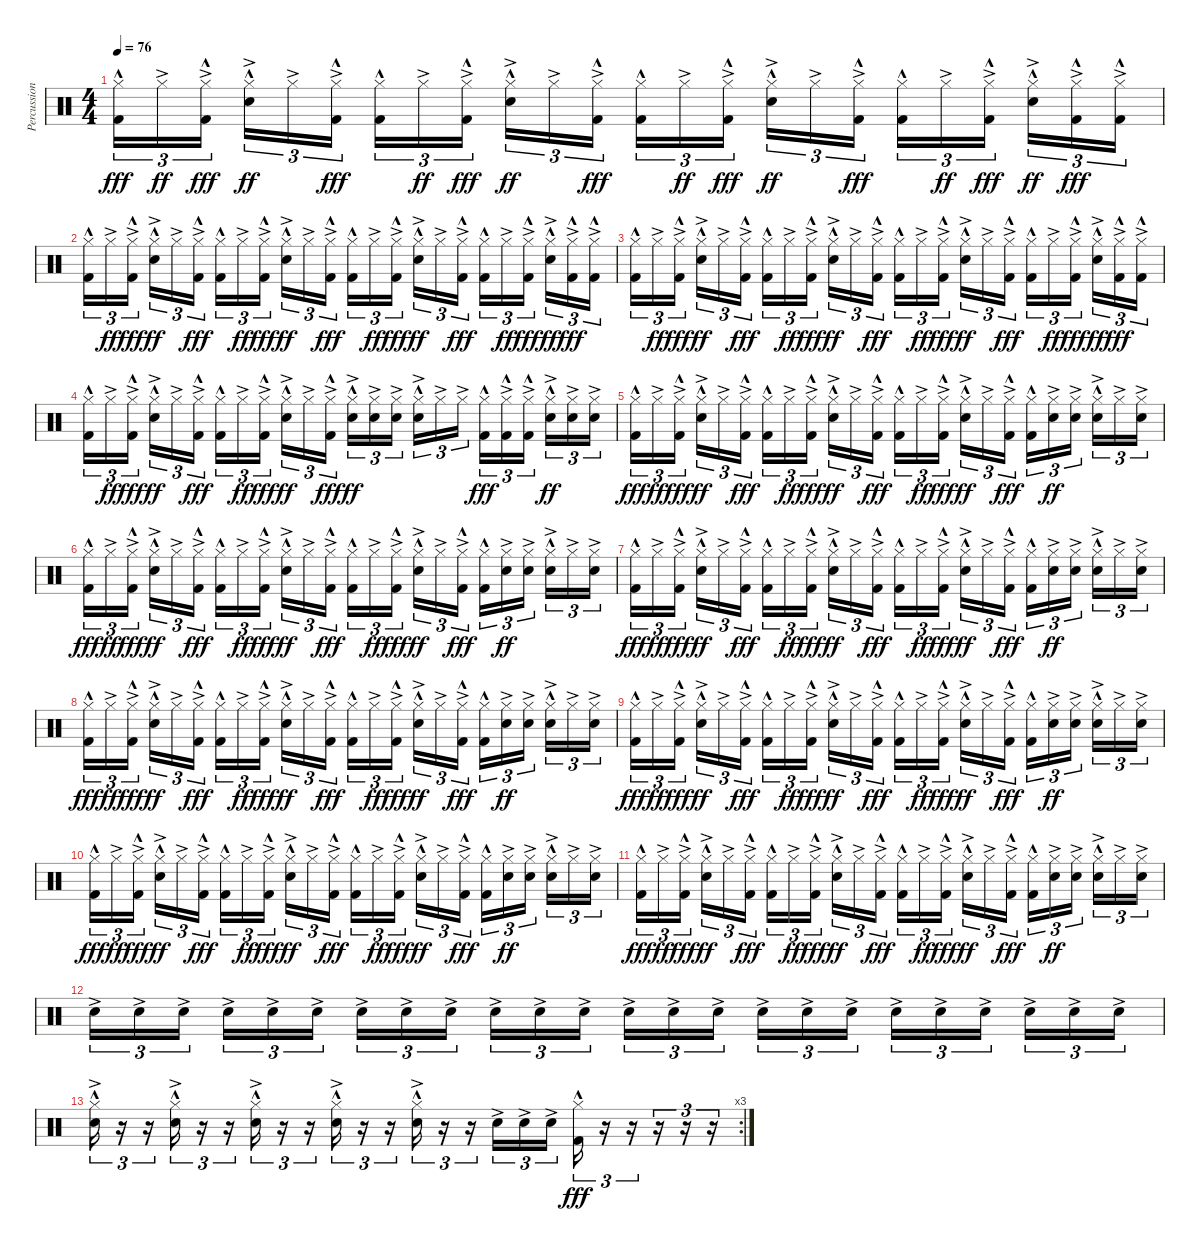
\track ("Percussion" "Percussion") {instrument percussion}
\staff {score}
\articulation defaults
\ts (4 4)
\tempo 76
\clef neutral
\ks c
("Hi-Hat (closed)"{hac} "Kick (hit) 2"{hac}).16{tu (3 2) dy fff} "Hi-Hat (closed)"{ac}.16{tu (3 2) dy ff} ("Hi-Hat (closed)"{ac} "Kick (hit) 2"{hac}).16{tu (3 2) dy fff beam splitsecondary} ("Hi-Hat (closed)"{hac} "Snare (hit) 2"{ac}).16{tu (3 2) dy ff} "Hi-Hat (closed)"{ac}.16{tu (3 2)} ("Hi-Hat (closed)"{ac} "Kick (hit) 2"{hac}).16{tu (3 2) dy fff} ("Hi-Hat (closed)"{hac} "Kick (hit) 2"{hac}).16{tu (3 2)} "Hi-Hat (closed)"{ac}.16{tu (3 2) dy ff} ("Hi-Hat (closed)"{ac} "Kick (hit) 2"{hac}).16{tu (3 2) dy fff beam splitsecondary} ("Hi-Hat (closed)"{hac} "Snare (hit) 2"{ac}).16{tu (3 2) dy ff} "Hi-Hat (closed)"{ac}.16{tu (3 2)} ("Hi-Hat (closed)"{ac} "Kick (hit) 2"{hac}).16{tu (3 2) dy fff} ("Hi-Hat (closed)"{hac} "Kick (hit) 2"{hac}).16{tu (3 2)} "Hi-Hat (closed)"{ac}.16{tu (3 2) dy ff} ("Hi-Hat (closed)"{ac} "Kick (hit) 2"{hac}).16{tu (3 2) dy fff beam splitsecondary} ("Hi-Hat (closed)"{hac} "Snare (hit) 2"{ac}).16{tu (3 2) dy ff} "Hi-Hat (closed)"{ac}.16{tu (3 2)} ("Hi-Hat (closed)"{ac} "Kick (hit) 2"{hac}).16{tu (3 2) dy fff} ("Hi-Hat (closed)"{hac} "Kick (hit) 2"{hac}).16{tu (3 2)} "Hi-Hat (closed)"{ac}.16{tu (3 2) dy ff} ("Hi-Hat (closed)"{ac} "Kick (hit) 2"{hac}).16{tu (3 2) dy fff beam splitsecondary} ("Hi-Hat (closed)"{hac} "Snare (hit) 2"{ac}).16{tu (3 2) dy ff} ("Hi-Hat (closed)"{ac} "Kick (hit) 2"{hac}).16{tu (3 2) dy fff} ("Hi-Hat (closed)"{ac} "Kick (hit) 2"{hac}).16{tu (3 2)} |
("Hi-Hat (closed)"{hac} "Kick (hit) 2"{hac}).16{tu (3 2)} "Hi-Hat (closed)"{ac}.16{tu (3 2) dy ff} ("Hi-Hat (closed)"{ac} "Kick (hit) 2"{hac}).16{tu (3 2) dy fff beam splitsecondary} ("Hi-Hat (closed)"{hac} "Snare (hit) 2"{ac}).16{tu (3 2) dy ff} "Hi-Hat (closed)"{ac}.16{tu (3 2)} ("Hi-Hat (closed)"{ac} "Kick (hit) 2"{hac}).16{tu (3 2) dy fff} ("Hi-Hat (closed)"{hac} "Kick (hit) 2"{hac}).16{tu (3 2)} "Hi-Hat (closed)"{ac}.16{tu (3 2) dy ff} ("Hi-Hat (closed)"{ac} "Kick (hit) 2"{hac}).16{tu (3 2) dy fff beam splitsecondary} ("Hi-Hat (closed)"{hac} "Snare (hit) 2"{ac}).16{tu (3 2) dy ff} "Hi-Hat (closed)"{ac}.16{tu (3 2)} ("Hi-Hat (closed)"{ac} "Kick (hit) 2"{hac}).16{tu (3 2) dy fff} ("Hi-Hat (closed)"{hac} "Kick (hit) 2"{hac}).16{tu (3 2)} "Hi-Hat (closed)"{ac}.16{tu (3 2) dy ff} ("Hi-Hat (closed)"{ac} "Kick (hit) 2"{hac}).16{tu (3 2) dy fff beam splitsecondary} ("Hi-Hat (closed)"{hac} "Snare (hit) 2"{ac}).16{tu (3 2) dy ff} "Hi-Hat (closed)"{ac}.16{tu (3 2)} ("Hi-Hat (closed)"{ac} "Kick (hit) 2"{hac}).16{tu (3 2) dy fff} ("Hi-Hat (closed)"{hac} "Kick (hit) 2"{hac}).16{tu (3 2)} "Hi-Hat (closed)"{ac}.16{tu (3 2) dy ff} ("Hi-Hat (closed)"{ac} "Kick (hit) 2"{hac}).16{tu (3 2) dy fff beam splitsecondary} ("Hi-Hat (closed)"{hac} "Snare (hit) 2"{ac}).16{tu (3 2) dy ff} ("Hi-Hat (closed)"{ac} "Kick (hit) 2"{hac}).16{tu (3 2) dy fff} ("Hi-Hat (closed)"{ac} "Kick (hit) 2"{hac}).16{tu (3 2)} |
("Hi-Hat (closed)"{hac} "Kick (hit) 2"{hac}).16{tu (3 2)} "Hi-Hat (closed)"{ac}.16{tu (3 2) dy ff} ("Hi-Hat (closed)"{ac} "Kick (hit) 2"{hac}).16{tu (3 2) dy fff beam splitsecondary} ("Hi-Hat (closed)"{hac} "Snare (hit) 2"{ac}).16{tu (3 2) dy ff} "Hi-Hat (closed)"{ac}.16{tu (3 2)} ("Hi-Hat (closed)"{ac} "Kick (hit) 2"{hac}).16{tu (3 2) dy fff} ("Hi-Hat (closed)"{hac} "Kick (hit) 2"{hac}).16{tu (3 2)} "Hi-Hat (closed)"{ac}.16{tu (3 2) dy ff} ("Hi-Hat (closed)"{ac} "Kick (hit) 2"{hac}).16{tu (3 2) dy fff beam splitsecondary} ("Hi-Hat (closed)"{hac} "Snare (hit) 2"{ac}).16{tu (3 2) dy ff} "Hi-Hat (closed)"{ac}.16{tu (3 2)} ("Hi-Hat (closed)"{ac} "Kick (hit) 2"{hac}).16{tu (3 2) dy fff} ("Hi-Hat (closed)"{hac} "Kick (hit) 2"{hac}).16{tu (3 2)} "Hi-Hat (closed)"{ac}.16{tu (3 2) dy ff} ("Hi-Hat (closed)"{ac} "Kick (hit) 2"{hac}).16{tu (3 2) dy fff beam splitsecondary} ("Hi-Hat (closed)"{hac} "Snare (hit) 2"{ac}).16{tu (3 2) dy ff} "Hi-Hat (closed)"{ac}.16{tu (3 2)} ("Hi-Hat (closed)"{ac} "Kick (hit) 2"{hac}).16{tu (3 2) dy fff} ("Hi-Hat (closed)"{hac} "Kick (hit) 2"{hac}).16{tu (3 2)} "Hi-Hat (closed)"{ac}.16{tu (3 2) dy ff} ("Hi-Hat (closed)"{ac} "Kick (hit) 2"{hac}).16{tu (3 2) dy fff beam splitsecondary} ("Hi-Hat (closed)"{hac} "Snare (hit) 2"{ac}).16{tu (3 2) dy ff} ("Hi-Hat (closed)"{ac} "Kick (hit) 2"{hac}).16{tu (3 2) dy fff} ("Hi-Hat (closed)"{ac} "Kick (hit) 2"{hac}).16{tu (3 2)} |
("Hi-Hat (closed)"{hac} "Kick (hit) 2"{hac}).16{tu (3 2)} "Hi-Hat (closed)"{ac}.16{tu (3 2) dy ff} ("Hi-Hat (closed)"{ac} "Kick (hit) 2"{hac}).16{tu (3 2) dy fff beam splitsecondary} ("Hi-Hat (closed)"{hac} "Snare (hit) 2"{ac}).16{tu (3 2) dy ff} "Hi-Hat (closed)"{ac}.16{tu (3 2)} ("Hi-Hat (closed)"{ac} "Kick (hit) 2"{hac}).16{tu (3 2) dy fff} ("Hi-Hat (closed)"{hac} "Kick (hit) 2"{hac}).16{tu (3 2)} "Hi-Hat (closed)"{ac}.16{tu (3 2) dy ff} ("Hi-Hat (closed)"{ac} "Kick (hit) 2"{hac}).16{tu (3 2) dy fff beam splitsecondary} ("Hi-Hat (closed)"{hac} "Snare (hit) 2"{ac}).16{tu (3 2) dy ff} "Hi-Hat (closed)"{ac}.16{tu (3 2)} ("Hi-Hat (closed)"{ac} "Kick (hit) 2"{hac}).16{tu (3 2) dy fff} ("Hi-Hat (closed)"{hac} "Snare (hit) 2"{ac}).16{tu (3 2) dy ff} ("Hi-Hat (closed)"{ac} "Snare (hit) 2"{ac}).16{tu (3 2)} ("Hi-Hat (closed)"{ac} "Snare (hit) 2"{ac}).16{tu (3 2) beam splitsecondary} ("Hi-Hat (closed)"{hac} "Snare (hit) 2"{ac}).16{tu (3 2)} "Hi-Hat (closed)"{ac}.16{tu (3 2)} "Hi-Hat (closed)"{ac}.16{tu (3 2)} ("Hi-Hat (closed)"{hac} "Kick (hit) 2"{hac}).16{tu (3 2) dy fff} ("Hi-Hat (closed)"{ac} "Kick (hit) 2"{hac}).16{tu (3 2)} ("Hi-Hat (closed)"{ac} "Kick (hit) 2"{hac}).16{tu (3 2) beam splitsecondary} ("Hi-Hat (closed)"{hac} "Snare (hit) 2"{ac}).16{tu (3 2) dy ff} ("Hi-Hat (closed)"{ac} "Snare (hit) 2"{ac}).16{tu (3 2)} ("Hi-Hat (closed)"{ac} "Snare (hit) 2"{ac}).16{tu (3 2)} |
("Hi-Hat (closed)"{hac} "Kick (hit) 2"{hac}).16{tu (3 2) dy fff} "Hi-Hat (closed)"{ac}.16{tu (3 2) dy ff} ("Hi-Hat (closed)"{ac} "Kick (hit) 2"{hac}).16{tu (3 2) dy fff beam splitsecondary} ("Hi-Hat (closed)"{hac} "Snare (hit) 2"{ac}).16{tu (3 2) dy ff} "Hi-Hat (closed)"{ac}.16{tu (3 2)} ("Hi-Hat (closed)"{ac} "Kick (hit) 2"{hac}).16{tu (3 2) dy fff} ("Hi-Hat (closed)"{hac} "Kick (hit) 2"{hac}).16{tu (3 2)} "Hi-Hat (closed)"{ac}.16{tu (3 2) dy ff} ("Hi-Hat (closed)"{ac} "Kick (hit) 2"{hac}).16{tu (3 2) dy fff beam splitsecondary} ("Hi-Hat (closed)"{hac} "Snare (hit) 2"{ac}).16{tu (3 2) dy ff} "Hi-Hat (closed)"{ac}.16{tu (3 2)} ("Hi-Hat (closed)"{ac} "Kick (hit) 2"{hac}).16{tu (3 2) dy fff} ("Hi-Hat (closed)"{hac} "Kick (hit) 2"{hac}).16{tu (3 2)} "Hi-Hat (closed)"{ac}.16{tu (3 2) dy ff} ("Hi-Hat (closed)"{ac} "Kick (hit) 2"{hac}).16{tu (3 2) dy fff beam splitsecondary} ("Hi-Hat (closed)"{hac} "Snare (hit) 2"{ac}).16{tu (3 2) dy ff} "Hi-Hat (closed)"{ac}.16{tu (3 2)} ("Hi-Hat (closed)"{ac} "Kick (hit) 2"{hac}).16{tu (3 2) dy fff} ("Hi-Hat (closed)"{hac} "Kick (hit) 2"{hac}).16{tu (3 2)} ("Hi-Hat (closed)"{ac} "Snare (hit) 2"{ac}).16{tu (3 2) dy ff} ("Hi-Hat (closed)"{ac} "Snare (hit) 2"{ac}).16{tu (3 2) beam splitsecondary} ("Hi-Hat (closed)"{hac} "Snare (hit) 2"{ac}).16{tu (3 2)} "Hi-Hat (closed)"{ac}.16{tu (3 2)} ("Hi-Hat (closed)"{ac} "Snare (hit) 2"{ac}).16{tu (3 2)} |
("Hi-Hat (closed)"{hac} "Kick (hit) 2"{hac}).16{tu (3 2) dy fff} "Hi-Hat (closed)"{ac}.16{tu (3 2) dy ff} ("Hi-Hat (closed)"{ac} "Kick (hit) 2"{hac}).16{tu (3 2) dy fff beam splitsecondary} ("Hi-Hat (closed)"{hac} "Snare (hit) 2"{ac}).16{tu (3 2) dy ff} "Hi-Hat (closed)"{ac}.16{tu (3 2)} ("Hi-Hat (closed)"{ac} "Kick (hit) 2"{hac}).16{tu (3 2) dy fff} ("Hi-Hat (closed)"{hac} "Kick (hit) 2"{hac}).16{tu (3 2)} "Hi-Hat (closed)"{ac}.16{tu (3 2) dy ff} ("Hi-Hat (closed)"{ac} "Kick (hit) 2"{hac}).16{tu (3 2) dy fff beam splitsecondary} ("Hi-Hat (closed)"{hac} "Snare (hit) 2"{ac}).16{tu (3 2) dy ff} "Hi-Hat (closed)"{ac}.16{tu (3 2)} ("Hi-Hat (closed)"{ac} "Kick (hit) 2"{hac}).16{tu (3 2) dy fff} ("Hi-Hat (closed)"{hac} "Kick (hit) 2"{hac}).16{tu (3 2)} "Hi-Hat (closed)"{ac}.16{tu (3 2) dy ff} ("Hi-Hat (closed)"{ac} "Kick (hit) 2"{hac}).16{tu (3 2) dy fff beam splitsecondary} ("Hi-Hat (closed)"{hac} "Snare (hit) 2"{ac}).16{tu (3 2) dy ff} "Hi-Hat (closed)"{ac}.16{tu (3 2)} ("Hi-Hat (closed)"{ac} "Kick (hit) 2"{hac}).16{tu (3 2) dy fff} ("Hi-Hat (closed)"{hac} "Kick (hit) 2"{hac}).16{tu (3 2)} ("Hi-Hat (closed)"{ac} "Snare (hit) 2"{ac}).16{tu (3 2) dy ff} ("Hi-Hat (closed)"{ac} "Snare (hit) 2"{ac}).16{tu (3 2) beam splitsecondary} ("Hi-Hat (closed)"{hac} "Snare (hit) 2"{ac}).16{tu (3 2)} "Hi-Hat (closed)"{ac}.16{tu (3 2)} ("Hi-Hat (closed)"{ac} "Snare (hit) 2"{ac}).16{tu (3 2)} |
("Hi-Hat (closed)"{hac} "Kick (hit) 2"{hac}).16{tu (3 2) dy fff} "Hi-Hat (closed)"{ac}.16{tu (3 2) dy ff} ("Hi-Hat (closed)"{ac} "Kick (hit) 2"{hac}).16{tu (3 2) dy fff beam splitsecondary} ("Hi-Hat (closed)"{hac} "Snare (hit) 2"{ac}).16{tu (3 2) dy ff} "Hi-Hat (closed)"{ac}.16{tu (3 2)} ("Hi-Hat (closed)"{ac} "Kick (hit) 2"{hac}).16{tu (3 2) dy fff} ("Hi-Hat (closed)"{hac} "Kick (hit) 2"{hac}).16{tu (3 2)} "Hi-Hat (closed)"{ac}.16{tu (3 2) dy ff} ("Hi-Hat (closed)"{ac} "Kick (hit) 2"{hac}).16{tu (3 2) dy fff beam splitsecondary} ("Hi-Hat (closed)"{hac} "Snare (hit) 2"{ac}).16{tu (3 2) dy ff} "Hi-Hat (closed)"{ac}.16{tu (3 2)} ("Hi-Hat (closed)"{ac} "Kick (hit) 2"{hac}).16{tu (3 2) dy fff} ("Hi-Hat (closed)"{hac} "Kick (hit) 2"{hac}).16{tu (3 2)} "Hi-Hat (closed)"{ac}.16{tu (3 2) dy ff} ("Hi-Hat (closed)"{ac} "Kick (hit) 2"{hac}).16{tu (3 2) dy fff beam splitsecondary} ("Hi-Hat (closed)"{hac} "Snare (hit) 2"{ac}).16{tu (3 2) dy ff} "Hi-Hat (closed)"{ac}.16{tu (3 2)} ("Hi-Hat (closed)"{ac} "Kick (hit) 2"{hac}).16{tu (3 2) dy fff} ("Hi-Hat (closed)"{hac} "Kick (hit) 2"{hac}).16{tu (3 2)} ("Hi-Hat (closed)"{ac} "Snare (hit) 2"{ac}).16{tu (3 2) dy ff} ("Hi-Hat (closed)"{ac} "Snare (hit) 2"{ac}).16{tu (3 2) beam splitsecondary} ("Hi-Hat (closed)"{hac} "Snare (hit) 2"{ac}).16{tu (3 2)} "Hi-Hat (closed)"{ac}.16{tu (3 2)} ("Hi-Hat (closed)"{ac} "Snare (hit) 2"{ac}).16{tu (3 2)} |
("Hi-Hat (closed)"{hac} "Kick (hit) 2"{hac}).16{tu (3 2) dy fff} "Hi-Hat (closed)"{ac}.16{tu (3 2) dy ff} ("Hi-Hat (closed)"{ac} "Kick (hit) 2"{hac}).16{tu (3 2) dy fff beam splitsecondary} ("Hi-Hat (closed)"{hac} "Snare (hit) 2"{ac}).16{tu (3 2) dy ff} "Hi-Hat (closed)"{ac}.16{tu (3 2)} ("Hi-Hat (closed)"{ac} "Kick (hit) 2"{hac}).16{tu (3 2) dy fff} ("Hi-Hat (closed)"{hac} "Kick (hit) 2"{hac}).16{tu (3 2)} "Hi-Hat (closed)"{ac}.16{tu (3 2) dy ff} ("Hi-Hat (closed)"{ac} "Kick (hit) 2"{hac}).16{tu (3 2) dy fff beam splitsecondary} ("Hi-Hat (closed)"{hac} "Snare (hit) 2"{ac}).16{tu (3 2) dy ff} "Hi-Hat (closed)"{ac}.16{tu (3 2)} ("Hi-Hat (closed)"{ac} "Kick (hit) 2"{hac}).16{tu (3 2) dy fff} ("Hi-Hat (closed)"{hac} "Kick (hit) 2"{hac}).16{tu (3 2)} "Hi-Hat (closed)"{ac}.16{tu (3 2) dy ff} ("Hi-Hat (closed)"{ac} "Kick (hit) 2"{hac}).16{tu (3 2) dy fff beam splitsecondary} ("Hi-Hat (closed)"{hac} "Snare (hit) 2"{ac}).16{tu (3 2) dy ff} "Hi-Hat (closed)"{ac}.16{tu (3 2)} ("Hi-Hat (closed)"{ac} "Kick (hit) 2"{hac}).16{tu (3 2) dy fff} ("Hi-Hat (closed)"{hac} "Kick (hit) 2"{hac}).16{tu (3 2)} ("Hi-Hat (closed)"{ac} "Snare (hit) 2"{ac}).16{tu (3 2) dy ff} ("Hi-Hat (closed)"{ac} "Snare (hit) 2"{ac}).16{tu (3 2) beam splitsecondary} ("Hi-Hat (closed)"{hac} "Snare (hit) 2"{ac}).16{tu (3 2)} "Hi-Hat (closed)"{ac}.16{tu (3 2)} ("Hi-Hat (closed)"{ac} "Snare (hit) 2"{ac}).16{tu (3 2)} |
("Hi-Hat (closed)"{hac} "Kick (hit) 2"{hac}).16{tu (3 2) dy fff} "Hi-Hat (closed)"{ac}.16{tu (3 2) dy ff} ("Hi-Hat (closed)"{ac} "Kick (hit) 2"{hac}).16{tu (3 2) dy fff beam splitsecondary} ("Hi-Hat (closed)"{hac} "Snare (hit) 2"{ac}).16{tu (3 2) dy ff} "Hi-Hat (closed)"{ac}.16{tu (3 2)} ("Hi-Hat (closed)"{ac} "Kick (hit) 2"{hac}).16{tu (3 2) dy fff} ("Hi-Hat (closed)"{hac} "Kick (hit) 2"{hac}).16{tu (3 2)} "Hi-Hat (closed)"{ac}.16{tu (3 2) dy ff} ("Hi-Hat (closed)"{ac} "Kick (hit) 2"{hac}).16{tu (3 2) dy fff beam splitsecondary} ("Hi-Hat (closed)"{hac} "Snare (hit) 2"{ac}).16{tu (3 2) dy ff} "Hi-Hat (closed)"{ac}.16{tu (3 2)} ("Hi-Hat (closed)"{ac} "Kick (hit) 2"{hac}).16{tu (3 2) dy fff} ("Hi-Hat (closed)"{hac} "Kick (hit) 2"{hac}).16{tu (3 2)} "Hi-Hat (closed)"{ac}.16{tu (3 2) dy ff} ("Hi-Hat (closed)"{ac} "Kick (hit) 2"{hac}).16{tu (3 2) dy fff beam splitsecondary} ("Hi-Hat (closed)"{hac} "Snare (hit) 2"{ac}).16{tu (3 2) dy ff} "Hi-Hat (closed)"{ac}.16{tu (3 2)} ("Hi-Hat (closed)"{ac} "Kick (hit) 2"{hac}).16{tu (3 2) dy fff} ("Hi-Hat (closed)"{hac} "Kick (hit) 2"{hac}).16{tu (3 2)} ("Hi-Hat (closed)"{ac} "Snare (hit) 2"{ac}).16{tu (3 2) dy ff} ("Hi-Hat (closed)"{ac} "Snare (hit) 2"{ac}).16{tu (3 2) beam splitsecondary} ("Hi-Hat (closed)"{hac} "Snare (hit) 2"{ac}).16{tu (3 2)} "Hi-Hat (closed)"{ac}.16{tu (3 2)} ("Hi-Hat (closed)"{ac} "Snare (hit) 2"{ac}).16{tu (3 2)} |
("Hi-Hat (closed)"{hac} "Kick (hit) 2"{hac}).16{tu (3 2) dy fff} "Hi-Hat (closed)"{ac}.16{tu (3 2) dy ff} ("Hi-Hat (closed)"{ac} "Kick (hit) 2"{hac}).16{tu (3 2) dy fff beam splitsecondary} ("Hi-Hat (closed)"{hac} "Snare (hit) 2"{ac}).16{tu (3 2) dy ff} "Hi-Hat (closed)"{ac}.16{tu (3 2)} ("Hi-Hat (closed)"{ac} "Kick (hit) 2"{hac}).16{tu (3 2) dy fff} ("Hi-Hat (closed)"{hac} "Kick (hit) 2"{hac}).16{tu (3 2)} "Hi-Hat (closed)"{ac}.16{tu (3 2) dy ff} ("Hi-Hat (closed)"{ac} "Kick (hit) 2"{hac}).16{tu (3 2) dy fff beam splitsecondary} ("Hi-Hat (closed)"{hac} "Snare (hit) 2"{ac}).16{tu (3 2) dy ff} "Hi-Hat (closed)"{ac}.16{tu (3 2)} ("Hi-Hat (closed)"{ac} "Kick (hit) 2"{hac}).16{tu (3 2) dy fff} ("Hi-Hat (closed)"{hac} "Kick (hit) 2"{hac}).16{tu (3 2)} "Hi-Hat (closed)"{ac}.16{tu (3 2) dy ff} ("Hi-Hat (closed)"{ac} "Kick (hit) 2"{hac}).16{tu (3 2) dy fff beam splitsecondary} ("Hi-Hat (closed)"{hac} "Snare (hit) 2"{ac}).16{tu (3 2) dy ff} "Hi-Hat (closed)"{ac}.16{tu (3 2)} ("Hi-Hat (closed)"{ac} "Kick (hit) 2"{hac}).16{tu (3 2) dy fff} ("Hi-Hat (closed)"{hac} "Kick (hit) 2"{hac}).16{tu (3 2)} ("Hi-Hat (closed)"{ac} "Snare (hit) 2"{ac}).16{tu (3 2) dy ff} ("Hi-Hat (closed)"{ac} "Snare (hit) 2"{ac}).16{tu (3 2) beam splitsecondary} ("Hi-Hat (closed)"{hac} "Snare (hit) 2"{ac}).16{tu (3 2)} "Hi-Hat (closed)"{ac}.16{tu (3 2)} ("Hi-Hat (closed)"{ac} "Snare (hit) 2"{ac}).16{tu (3 2)} |
("Hi-Hat (closed)"{hac} "Kick (hit) 2"{hac}).16{tu (3 2) dy fff} "Hi-Hat (closed)"{ac}.16{tu (3 2) dy ff} ("Hi-Hat (closed)"{ac} "Kick (hit) 2"{hac}).16{tu (3 2) dy fff beam splitsecondary} ("Hi-Hat (closed)"{hac} "Snare (hit) 2"{ac}).16{tu (3 2) dy ff} "Hi-Hat (closed)"{ac}.16{tu (3 2)} ("Hi-Hat (closed)"{ac} "Kick (hit) 2"{hac}).16{tu (3 2) dy fff} ("Hi-Hat (closed)"{hac} "Kick (hit) 2"{hac}).16{tu (3 2)} "Hi-Hat (closed)"{ac}.16{tu (3 2) dy ff} ("Hi-Hat (closed)"{ac} "Kick (hit) 2"{hac}).16{tu (3 2) dy fff beam splitsecondary} ("Hi-Hat (closed)"{hac} "Snare (hit) 2"{ac}).16{tu (3 2) dy ff} "Hi-Hat (closed)"{ac}.16{tu (3 2)} ("Hi-Hat (closed)"{ac} "Kick (hit) 2"{hac}).16{tu (3 2) dy fff} ("Hi-Hat (closed)"{hac} "Kick (hit) 2"{hac}).16{tu (3 2)} "Hi-Hat (closed)"{ac}.16{tu (3 2) dy ff} ("Hi-Hat (closed)"{ac} "Kick (hit) 2"{hac}).16{tu (3 2) dy fff beam splitsecondary} ("Hi-Hat (closed)"{hac} "Snare (hit) 2"{ac}).16{tu (3 2) dy ff} "Hi-Hat (closed)"{ac}.16{tu (3 2)} ("Hi-Hat (closed)"{ac} "Kick (hit) 2"{hac}).16{tu (3 2) dy fff} ("Hi-Hat (closed)"{hac} "Kick (hit) 2"{hac}).16{tu (3 2)} ("Hi-Hat (closed)"{ac} "Snare (hit) 2"{ac}).16{tu (3 2) dy ff} ("Hi-Hat (closed)"{ac} "Snare (hit) 2"{ac}).16{tu (3 2) beam splitsecondary} ("Hi-Hat (closed)"{hac} "Snare (hit) 2"{ac}).16{tu (3 2)} "Hi-Hat (closed)"{ac}.16{tu (3 2)} ("Hi-Hat (closed)"{ac} "Snare (hit) 2"{ac}).16{tu (3 2)} |
"Snare (hit) 2"{ac}.16{tu (3 2)} "Snare (hit) 2"{ac}.16{tu (3 2)} "Snare (hit) 2"{ac}.16{tu (3 2) beam splitsecondary} "Snare (hit) 2"{ac}.16{tu (3 2)} "Snare (hit) 2"{ac}.16{tu (3 2)} "Snare (hit) 2"{ac}.16{tu (3 2)} "Snare (hit) 2"{ac}.16{tu (3 2)} "Snare (hit) 2"{ac}.16{tu (3 2)} "Snare (hit) 2"{ac}.16{tu (3 2) beam splitsecondary} "Snare (hit) 2"{ac}.16{tu (3 2)} "Snare (hit) 2"{ac}.16{tu (3 2)} "Snare (hit) 2"{ac}.16{tu (3 2)} "Snare (hit) 2"{ac}.16{tu (3 2)} "Snare (hit) 2"{ac}.16{tu (3 2)} "Snare (hit) 2"{ac}.16{tu (3 2) beam splitsecondary} "Snare (hit) 2"{ac}.16{tu (3 2)} "Snare (hit) 2"{ac}.16{tu (3 2)} "Snare (hit) 2"{ac}.16{tu (3 2)} "Snare (hit) 2"{ac}.16{tu (3 2)} "Snare (hit) 2"{ac}.16{tu (3 2)} "Snare (hit) 2"{ac}.16{tu (3 2) beam splitsecondary} "Snare (hit) 2"{ac}.16{tu (3 2)} "Snare (hit) 2"{ac}.16{tu (3 2)} "Snare (hit) 2"{ac}.16{tu (3 2)} |
\rc 3
("Hi-Hat (closed)"{hac} "Snare (hit) 2"{ac}).16{tu (3 2)} r.16{tu (3 2)} r.16{tu (3 2)} ("Hi-Hat (closed)"{hac} "Snare (hit) 2"{ac}).16{tu (3 2)} r.16{tu (3 2)} r.16{tu (3 2)} ("Hi-Hat (closed)"{hac} "Snare (hit) 2"{ac}).16{tu (3 2)} r.16{tu (3 2)} r.16{tu (3 2)} ("Hi-Hat (closed)"{hac} "Snare (hit) 2"{ac}).16{tu (3 2)} r.16{tu (3 2)} r.16{tu (3 2)} ("Hi-Hat (closed)"{hac} "Snare (hit) 2"{ac}).16{tu (3 2)} r.16{tu (3 2)} r.16{tu (3 2)} "Snare (hit) 2"{ac}.16{tu (3 2)} "Snare (hit) 2"{ac}.16{tu (3 2)} "Snare (hit) 2"{ac}.16{tu (3 2)} ("Hi-Hat (closed)"{hac} "Kick (hit) 2"{hac}).16{tu (3 2) dy fff} r.16{tu (3 2)} r.16{tu (3 2)} r.16{tu (3 2)} r.16{tu (3 2)} r.16{tu (3 2)}
